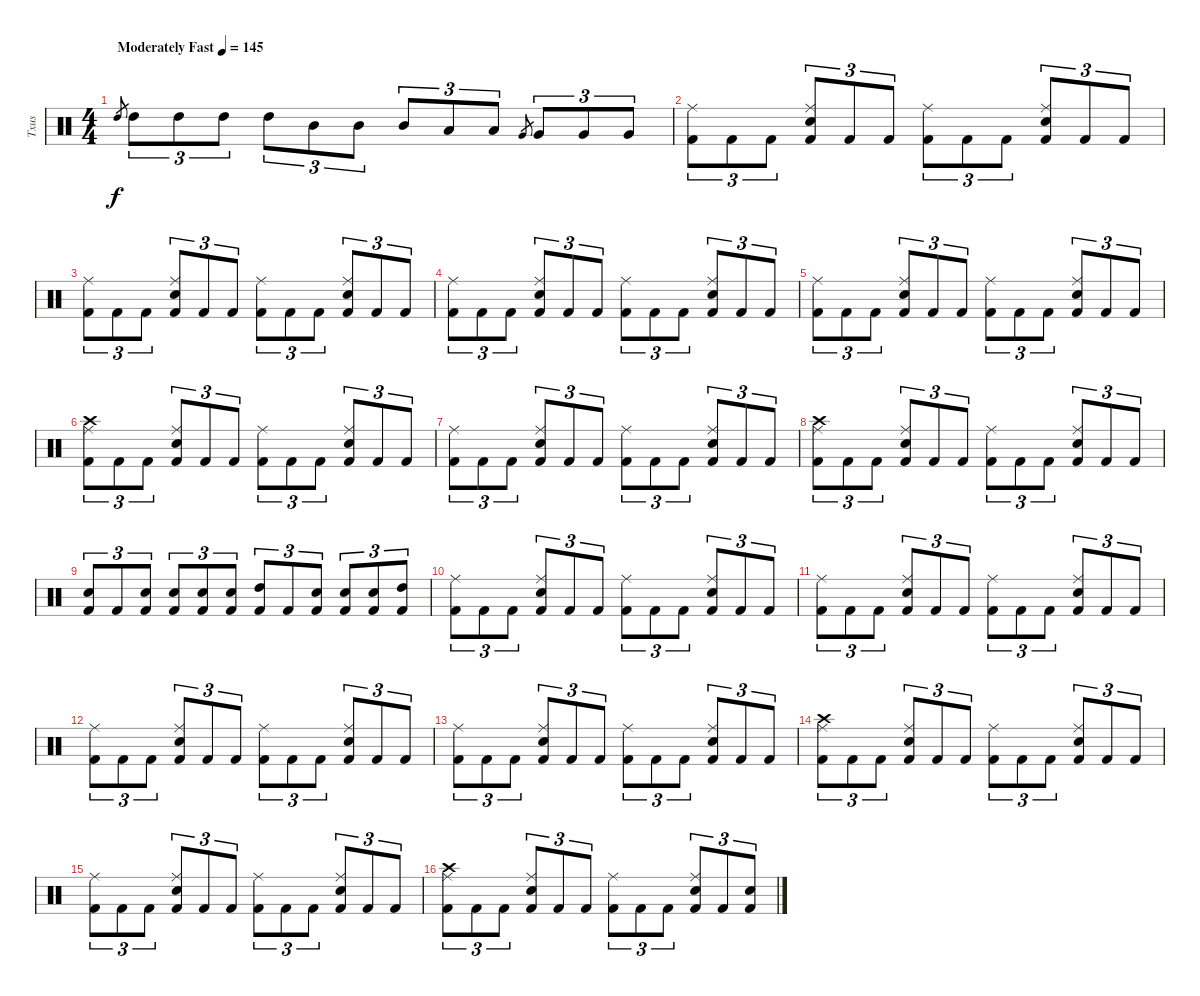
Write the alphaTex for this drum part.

\track ("Txus" "Txus") {instrument percussion}
\staff {score}
\articulation defaults
\ts (4 4)
\tempo (145 "Moderately Fast")
\clef neutral
\ks c "High Tom (hit)".8{gr dy f} "High Tom (hit)".8{tu (3 2)} "High Tom (hit)".8{tu (3 2)} "High Tom (hit)".8{tu (3 2)} "High Tom (hit)".8{tu (3 2)} "Mid Tom (hit)".8{tu (3 2)} "Mid Tom (hit)".8{tu (3 2)} "Mid Tom (hit)".8{tu (3 2)} "Low Tom (hit)".8{tu (3 2)} "Low Tom (hit)".8{tu (3 2)} "Very Low Tom (hit)".8{gr} "Very Low Tom (hit)".8{tu (3 2)} "Very Low Tom (hit)".8{tu (3 2)} "Very Low Tom (hit)".8{tu (3 2)}
|
("Kick (hit) 2" "Ride (middle)").8{tu (3 2)} "Kick (hit) 2".8{tu (3 2)} "Kick (hit) 2".8{tu (3 2)} ("Kick (hit) 2" "Ride (middle)" "Electric Snare (hit)").8{tu (3 2)} "Kick (hit) 2".8{tu (3 2)} "Kick (hit) 2".8{tu (3 2)} ("Kick (hit) 2" "Ride (middle)").8{tu (3 2)} "Kick (hit) 2".8{tu (3 2)} "Kick (hit) 2".8{tu (3 2)} ("Kick (hit) 2" "Ride (middle)" "Electric Snare (hit)").8{tu (3 2)} "Kick (hit) 2".8{tu (3 2)} "Kick (hit) 2".8{tu (3 2)} |
("Kick (hit) 2" "Ride (middle)").8{tu (3 2)} "Kick (hit) 2".8{tu (3 2)} "Kick (hit) 2".8{tu (3 2)} ("Kick (hit) 2" "Ride (middle)" "Electric Snare (hit)").8{tu (3 2)} "Kick (hit) 2".8{tu (3 2)} "Kick (hit) 2".8{tu (3 2)} ("Kick (hit) 2" "Ride (middle)").8{tu (3 2)} "Kick (hit) 2".8{tu (3 2)} "Kick (hit) 2".8{tu (3 2)} ("Kick (hit) 2" "Ride (middle)" "Electric Snare (hit)").8{tu (3 2)} "Kick (hit) 2".8{tu (3 2)} "Kick (hit) 2".8{tu (3 2)} |
("Kick (hit) 2" "Ride (middle)").8{tu (3 2)} "Kick (hit) 2".8{tu (3 2)} "Kick (hit) 2".8{tu (3 2)} ("Kick (hit) 2" "Ride (middle)" "Electric Snare (hit)").8{tu (3 2)} "Kick (hit) 2".8{tu (3 2)} "Kick (hit) 2".8{tu (3 2)} ("Kick (hit) 2" "Ride (middle)").8{tu (3 2)} "Kick (hit) 2".8{tu (3 2)} "Kick (hit) 2".8{tu (3 2)} ("Kick (hit) 2" "Ride (middle)" "Electric Snare (hit)").8{tu (3 2)} "Kick (hit) 2".8{tu (3 2)} "Kick (hit) 2".8{tu (3 2)} |
("Kick (hit) 2" "Ride (middle)").8{tu (3 2)} "Kick (hit) 2".8{tu (3 2)} "Kick (hit) 2".8{tu (3 2)} ("Kick (hit) 2" "Ride (middle)" "Electric Snare (hit)").8{tu (3 2)} "Kick (hit) 2".8{tu (3 2)} "Kick (hit) 2".8{tu (3 2)} ("Kick (hit) 2" "Ride (middle)").8{tu (3 2)} "Kick (hit) 2".8{tu (3 2)} "Kick (hit) 2".8{tu (3 2)} ("Kick (hit) 2" "Ride (middle)" "Electric Snare (hit)").8{tu (3 2)} "Kick (hit) 2".8{tu (3 2)} "Kick (hit) 2".8{tu (3 2)} |
("Kick (hit) 2" "Ride (middle)" "Crash high (hit)").8{tu (3 2)} "Kick (hit) 2".8{tu (3 2)} "Kick (hit) 2".8{tu (3 2)} ("Kick (hit) 2" "Ride (middle)" "Electric Snare (hit)").8{tu (3 2)} "Kick (hit) 2".8{tu (3 2)} "Kick (hit) 2".8{tu (3 2)} ("Kick (hit) 2" "Ride (middle)").8{tu (3 2)} "Kick (hit) 2".8{tu (3 2)} "Kick (hit) 2".8{tu (3 2)} ("Kick (hit) 2" "Ride (middle)" "Electric Snare (hit)").8{tu (3 2)} "Kick (hit) 2".8{tu (3 2)} "Kick (hit) 2".8{tu (3 2)} |
("Kick (hit) 2" "Ride (middle)").8{tu (3 2)} "Kick (hit) 2".8{tu (3 2)} "Kick (hit) 2".8{tu (3 2)} ("Kick (hit) 2" "Ride (middle)" "Electric Snare (hit)").8{tu (3 2)} "Kick (hit) 2".8{tu (3 2)} "Kick (hit) 2".8{tu (3 2)} ("Kick (hit) 2" "Ride (middle)").8{tu (3 2)} "Kick (hit) 2".8{tu (3 2)} "Kick (hit) 2".8{tu (3 2)} ("Kick (hit) 2" "Ride (middle)" "Electric Snare (hit)").8{tu (3 2)} "Kick (hit) 2".8{tu (3 2)} "Kick (hit) 2".8{tu (3 2)} |
("Kick (hit) 2" "Ride (middle)" "Crash high (hit)").8{tu (3 2)} "Kick (hit) 2".8{tu (3 2)} "Kick (hit) 2".8{tu (3 2)} ("Kick (hit) 2" "Ride (middle)" "Electric Snare (hit)").8{tu (3 2)} "Kick (hit) 2".8{tu (3 2)} "Kick (hit) 2".8{tu (3 2)} ("Kick (hit) 2" "Ride (middle)").8{tu (3 2)} "Kick (hit) 2".8{tu (3 2)} "Kick (hit) 2".8{tu (3 2)} ("Kick (hit) 2" "Ride (middle)" "Electric Snare (hit)").8{tu (3 2)} "Kick (hit) 2".8{tu (3 2)} "Kick (hit) 2".8{tu (3 2)} |
("Kick (hit) 2" "Electric Snare (hit)").8{tu (3 2)} "Kick (hit) 2".8{tu (3 2)} ("Kick (hit) 2" "Electric Snare (hit)").8{tu (3 2)} ("Kick (hit) 2" "Electric Snare (hit)").8{tu (3 2)} ("Kick (hit) 2" "Electric Snare (hit)").8{tu (3 2)} ("Kick (hit) 2" "Electric Snare (hit)").8{tu (3 2)} ("Kick (hit) 2" "High Tom (hit)").8{tu (3 2)} "Kick (hit) 2".8{tu (3 2)} ("Kick (hit) 2" "Electric Snare (hit)").8{tu (3 2)} ("Kick (hit) 2" "Electric Snare (hit)").8{tu (3 2)} ("Kick (hit) 2" "Electric Snare (hit)").8{tu (3 2)} ("Kick (hit) 2" "High Tom (hit)").8{tu (3 2)} |
("Kick (hit) 2" "Ride (middle)").8{tu (3 2)} "Kick (hit) 2".8{tu (3 2)} "Kick (hit) 2".8{tu (3 2)} ("Kick (hit) 2" "Ride (middle)" "Electric Snare (hit)").8{tu (3 2)} "Kick (hit) 2".8{tu (3 2)} "Kick (hit) 2".8{tu (3 2)} ("Kick (hit) 2" "Ride (middle)").8{tu (3 2)} "Kick (hit) 2".8{tu (3 2)} "Kick (hit) 2".8{tu (3 2)} ("Kick (hit) 2" "Ride (middle)" "Electric Snare (hit)").8{tu (3 2)} "Kick (hit) 2".8{tu (3 2)} "Kick (hit) 2".8{tu (3 2)} |
("Kick (hit) 2" "Ride (middle)").8{tu (3 2)} "Kick (hit) 2".8{tu (3 2)} "Kick (hit) 2".8{tu (3 2)} ("Kick (hit) 2" "Ride (middle)" "Electric Snare (hit)").8{tu (3 2)} "Kick (hit) 2".8{tu (3 2)} "Kick (hit) 2".8{tu (3 2)} ("Kick (hit) 2" "Ride (middle)").8{tu (3 2)} "Kick (hit) 2".8{tu (3 2)} "Kick (hit) 2".8{tu (3 2)} ("Kick (hit) 2" "Ride (middle)" "Electric Snare (hit)").8{tu (3 2)} "Kick (hit) 2".8{tu (3 2)} "Kick (hit) 2".8{tu (3 2)} |
("Kick (hit) 2" "Ride (middle)").8{tu (3 2)} "Kick (hit) 2".8{tu (3 2)} "Kick (hit) 2".8{tu (3 2)} ("Kick (hit) 2" "Ride (middle)" "Electric Snare (hit)").8{tu (3 2)} "Kick (hit) 2".8{tu (3 2)} "Kick (hit) 2".8{tu (3 2)} ("Kick (hit) 2" "Ride (middle)").8{tu (3 2)} "Kick (hit) 2".8{tu (3 2)} "Kick (hit) 2".8{tu (3 2)} ("Kick (hit) 2" "Ride (middle)" "Electric Snare (hit)").8{tu (3 2)} "Kick (hit) 2".8{tu (3 2)} "Kick (hit) 2".8{tu (3 2)} |
("Kick (hit) 2" "Ride (middle)").8{tu (3 2)} "Kick (hit) 2".8{tu (3 2)} "Kick (hit) 2".8{tu (3 2)} ("Kick (hit) 2" "Ride (middle)" "Electric Snare (hit)").8{tu (3 2)} "Kick (hit) 2".8{tu (3 2)} "Kick (hit) 2".8{tu (3 2)} ("Kick (hit) 2" "Ride (middle)").8{tu (3 2)} "Kick (hit) 2".8{tu (3 2)} "Kick (hit) 2".8{tu (3 2)} ("Kick (hit) 2" "Ride (middle)" "Electric Snare (hit)").8{tu (3 2)} "Kick (hit) 2".8{tu (3 2)} "Kick (hit) 2".8{tu (3 2)} |
("Kick (hit) 2" "Ride (middle)" "Crash high (hit)").8{tu (3 2)} "Kick (hit) 2".8{tu (3 2)} "Kick (hit) 2".8{tu (3 2)} ("Kick (hit) 2" "Ride (middle)" "Electric Snare (hit)").8{tu (3 2)} "Kick (hit) 2".8{tu (3 2)} "Kick (hit) 2".8{tu (3 2)} ("Kick (hit) 2" "Ride (middle)").8{tu (3 2)} "Kick (hit) 2".8{tu (3 2)} "Kick (hit) 2".8{tu (3 2)} ("Kick (hit) 2" "Ride (middle)" "Electric Snare (hit)").8{tu (3 2)} "Kick (hit) 2".8{tu (3 2)} "Kick (hit) 2".8{tu (3 2)} |
("Kick (hit) 2" "Ride (middle)").8{tu (3 2)} "Kick (hit) 2".8{tu (3 2)} "Kick (hit) 2".8{tu (3 2)} ("Kick (hit) 2" "Ride (middle)" "Electric Snare (hit)").8{tu (3 2)} "Kick (hit) 2".8{tu (3 2)} "Kick (hit) 2".8{tu (3 2)} ("Kick (hit) 2" "Ride (middle)").8{tu (3 2)} "Kick (hit) 2".8{tu (3 2)} "Kick (hit) 2".8{tu (3 2)} ("Kick (hit) 2" "Ride (middle)" "Electric Snare (hit)").8{tu (3 2)} "Kick (hit) 2".8{tu (3 2)} "Kick (hit) 2".8{tu (3 2)} |
("Kick (hit) 2" "Ride (middle)" "Crash high (hit)").8{tu (3 2)} "Kick (hit) 2".8{tu (3 2)} "Kick (hit) 2".8{tu (3 2)} ("Kick (hit) 2" "Ride (middle)" "Electric Snare (hit)").8{tu (3 2)} "Kick (hit) 2".8{tu (3 2)} "Kick (hit) 2".8{tu (3 2)} ("Kick (hit) 2" "Ride (middle)").8{tu (3 2)} "Kick (hit) 2".8{tu (3 2)} "Kick (hit) 2".8{tu (3 2)} ("Kick (hit) 2" "Ride (middle)" "Electric Snare (hit)").8{tu (3 2)} "Kick (hit) 2".8{tu (3 2)} ("Kick (hit) 2" "Electric Snare (hit)").8{tu (3 2)}
